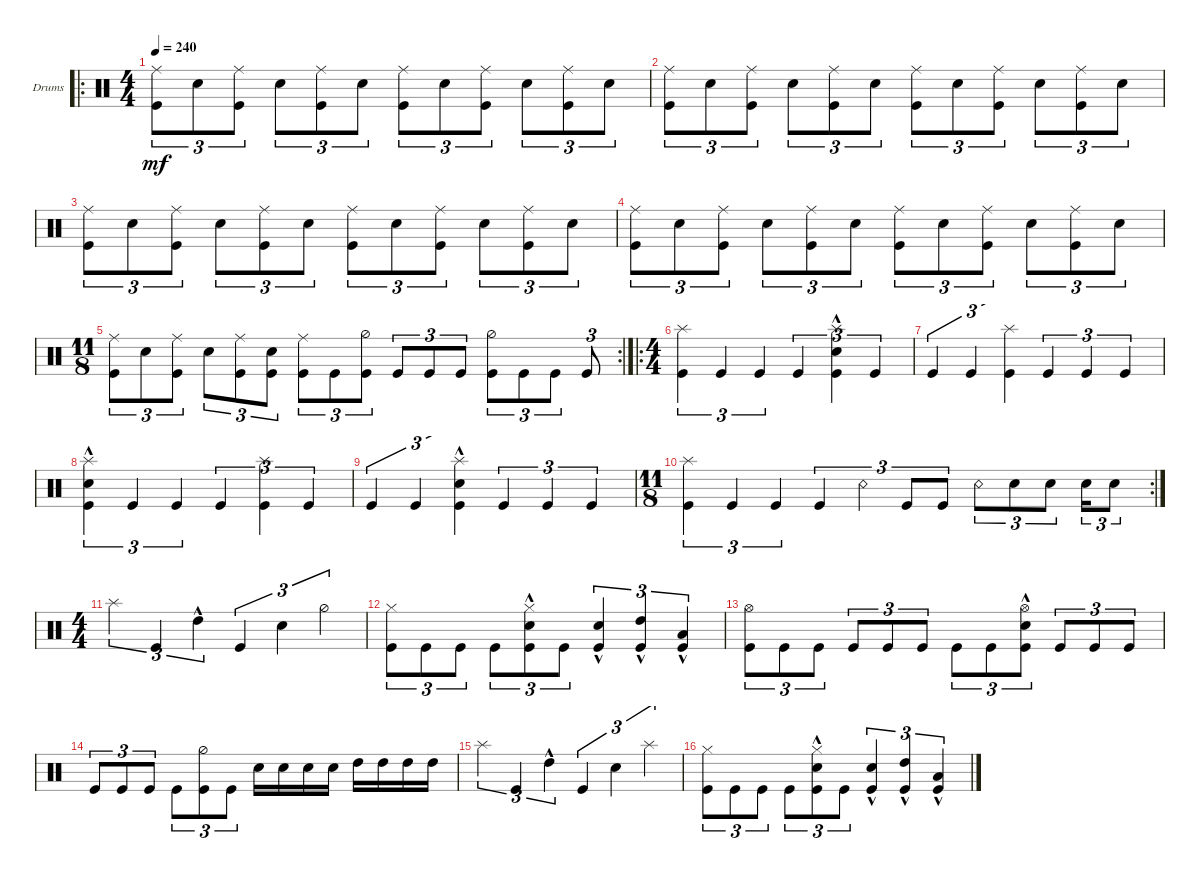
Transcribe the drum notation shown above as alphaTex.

\defaultSystemsLayout 4
\bracketExtendMode groupsimilarinstruments
\firstSystemTrackNameOrientation horizontal
\otherSystemsTrackNameOrientation horizontal
\track ("Drumkit" "Drums") {instrument percussion}
\staff {score}
\articulation defaults
\ro
\ts (4 4)
\tempo 240
\clef neutral
\ks c
("Kick (hit)" "Ride (middle)").8{tu (3 2) dy mf} "Snare (hit) 2".8{tu (3 2)} ("Kick (hit)" "Ride (middle)").8{tu (3 2)} "Snare (hit) 2".8{tu (3 2)} ("Kick (hit)" "Ride (middle)").8{tu (3 2)} "Snare (hit) 2".8{tu (3 2)} ("Kick (hit)" "Ride (middle)").8{tu (3 2)} "Snare (hit) 2".8{tu (3 2)} ("Kick (hit)" "Ride (middle)").8{tu (3 2)} "Snare (hit) 2".8{tu (3 2)} ("Kick (hit)" "Ride (middle)").8{tu (3 2)} "Snare (hit) 2".8{tu (3 2)} |
("Kick (hit)" "Ride (middle)").8{tu (3 2)} "Snare (hit) 2".8{tu (3 2)} ("Kick (hit)" "Ride (middle)").8{tu (3 2)} "Snare (hit) 2".8{tu (3 2)} ("Kick (hit)" "Ride (middle)").8{tu (3 2)} "Snare (hit) 2".8{tu (3 2)} ("Kick (hit)" "Ride (middle)").8{tu (3 2)} "Snare (hit) 2".8{tu (3 2)} ("Kick (hit)" "Ride (middle)").8{tu (3 2)} "Snare (hit) 2".8{tu (3 2)} ("Kick (hit)" "Ride (middle)").8{tu (3 2)} "Snare (hit) 2".8{tu (3 2)} |
("Kick (hit)" "Ride (middle)").8{tu (3 2)} "Snare (hit) 2".8{tu (3 2)} ("Kick (hit)" "Ride (middle)").8{tu (3 2)} "Snare (hit) 2".8{tu (3 2)} ("Kick (hit)" "Ride (middle)").8{tu (3 2)} "Snare (hit) 2".8{tu (3 2)} ("Kick (hit)" "Ride (middle)").8{tu (3 2)} "Snare (hit) 2".8{tu (3 2)} ("Kick (hit)" "Ride (middle)").8{tu (3 2)} "Snare (hit) 2".8{tu (3 2)} ("Kick (hit)" "Ride (middle)").8{tu (3 2)} "Snare (hit) 2".8{tu (3 2)} |
("Kick (hit)" "Ride (middle)").8{tu (3 2)} "Snare (hit) 2".8{tu (3 2)} ("Kick (hit)" "Ride (middle)").8{tu (3 2)} "Snare (hit) 2".8{tu (3 2)} ("Kick (hit)" "Ride (middle)").8{tu (3 2)} "Snare (hit) 2".8{tu (3 2)} ("Kick (hit)" "Ride (middle)").8{tu (3 2)} "Snare (hit) 2".8{tu (3 2)} ("Kick (hit)" "Ride (middle)").8{tu (3 2)} "Snare (hit) 2".8{tu (3 2)} ("Kick (hit)" "Ride (middle)").8{tu (3 2)} "Snare (hit) 2".8{tu (3 2)} |
\rc 2
\ts (11 8)
("Kick (hit)" "Ride (middle)").8{tu (3 2)} "Snare (hit) 2".8{tu (3 2)} ("Kick (hit)" "Ride (middle)").8{tu (3 2)} "Snare (hit) 2".8{tu (3 2)} ("Kick (hit)" "Ride (middle)").8{tu (3 2)} ("Snare (hit) 2" "Kick (hit)").8{tu (3 2)} ("Kick (hit)" "Ride (middle)").8{tu (3 2)} "Kick (hit)".8{tu (3 2)} ("Kick (hit)" "Hi-Hat (half)").8{tu (3 2)} "Kick (hit)".8{tu (3 2)} "Kick (hit)".8{tu (3 2)} "Kick (hit)".8{tu (3 2)} ("Kick (hit)" "Hi-Hat (half)").8{tu (3 2)} "Kick (hit)".8{tu (3 2)} "Kick (hit)".8{tu (3 2)} "Kick (hit)".8{tu (3 2)} |
\ro
\ts (4 4)
("Kick (hit)" "Splash (hit)").4{tu (3 2)} "Kick (hit)".4{tu (3 2)} "Kick (hit)".4{tu (3 2)} "Kick (hit)".4{tu (3 2)} ("Kick (hit)" "Splash (hit)" "Snare (hit) 2"{hac}).4{tu (3 2)} "Kick (hit)".4{tu (3 2)} |
"Kick (hit)".4{tu (3 2)} "Kick (hit)".4{tu (3 2)} ("Kick (hit)" "Splash (hit)").4{tu (3 2)} "Kick (hit)".4{tu (3 2)} "Kick (hit)".4{tu (3 2)} "Kick (hit)".4{tu (3 2)} |
("Kick (hit)" "Splash (hit)" "Snare (hit) 2"{hac}).4{tu (3 2)} "Kick (hit)".4{tu (3 2)} "Kick (hit)".4{tu (3 2)} "Kick (hit)".4{tu (3 2)} ("Kick (hit)" "Splash (hit)").4{tu (3 2)} "Kick (hit)".4{tu (3 2)} |
"Kick (hit)".4{tu (3 2)} "Kick (hit)".4{tu (3 2)} ("Kick (hit)" "Splash (hit)" "Snare (hit) 2"{hac}).4{tu (3 2)} "Kick (hit)".4{tu (3 2)} "Kick (hit)".4{tu (3 2)} "Kick (hit)".4{tu (3 2)} |
\rc 2
\ts (11 8)
("Kick (hit)" "Splash (hit)").4{tu (3 2)} "Kick (hit)".4{tu (3 2)} "Kick (hit)".4{tu (3 2)} "Kick (hit)".4{tu (3 2)} "Snare (rim shot)".4{tu (3 2)} "Kick (hit)".8{tu (3 2)} "Kick (hit)".8{tu (3 2)} "Snare (rim shot)".8{tu (3 2)} "Snare (hit) 2".8{tu (3 2)} "Snare (hit) 2".8{tu (3 2)} "Snare (hit) 2".16{tu (3 2)} "Snare (hit) 2".8{tu (3 2)} |
\ts (4 4)
"Splash (hit)".4{tu (3 2)} "Kick (hit)".4{tu (3 2)} "High Tom (hit)"{hac}.4{tu (3 2)} "Kick (hit)".4{tu (3 2)} "Snare (hit) 2".4{tu (3 2)} "Hi-Hat (half)".4{tu (3 2)} |
("Hi-Hat (closed)" "Kick (hit)").8{tu (3 2)} "Kick (hit)".8{tu (3 2)} "Kick (hit)".8{tu (3 2)} "Kick (hit)".8{tu (3 2)} ("Kick (hit)" "Hi-Hat (closed)" "Snare (hit) 2"{hac}).8{tu (3 2)} "Kick (hit)".8{tu (3 2)} ("Snare (hit) 2"{hac} "Kick (hit)").4{tu (3 2)} ("High Tom (hit)"{hac} "Kick (hit)").4{tu (3 2)} ("Low Tom (hit)"{hac} "Kick (hit)").4{tu (3 2)} |
("Kick (hit)" "Hi-Hat (open)").8{tu (3 2)} "Kick (hit)".8{tu (3 2)} "Kick (hit)".8{tu (3 2)} "Kick (hit)".8{tu (3 2)} "Kick (hit)".8{tu (3 2)} "Kick (hit)".8{tu (3 2)} "Kick (hit)".8{tu (3 2)} "Kick (hit)".8{tu (3 2)} ("Kick (hit)" "Hi-Hat (open)" "Snare (hit) 2"{hac}).8{tu (3 2)} "Kick (hit)".8{tu (3 2)} "Kick (hit)".8{tu (3 2)} "Kick (hit)".8{tu (3 2)} |
"Kick (hit)".8{tu (3 2)} "Kick (hit)".8{tu (3 2)} "Kick (hit)".8{tu (3 2)} "Kick (hit)".8{tu (3 2)} ("Kick (hit)" "Hi-Hat (half)").8{tu (3 2)} "Kick (hit)".8{tu (3 2)} "Snare (hit) 2".16 "Snare (hit) 2".16 "Snare (hit) 2".16 "Snare (hit) 2".16 "High Tom (hit)".16 "High Tom (hit)".16 "High Tom (hit)".16 "High Tom (hit)".16 |
"Splash (hit)".4{tu (3 2)} "Kick (hit)".4{tu (3 2)} "High Tom (hit)"{hac}.4{tu (3 2)} "Kick (hit)".4{tu (3 2)} "Snare (hit) 2".4{tu (3 2)} "Splash (hit)".4{tu (3 2)} |
("Hi-Hat (closed)" "Kick (hit)").8{tu (3 2)} "Kick (hit)".8{tu (3 2)} "Kick (hit)".8{tu (3 2)} "Kick (hit)".8{tu (3 2)} ("Kick (hit)" "Hi-Hat (closed)" "Snare (hit) 2"{hac}).8{tu (3 2)} "Kick (hit)".8{tu (3 2)} ("Snare (hit) 2"{hac} "Kick (hit)").4{tu (3 2)} ("High Tom (hit)"{hac} "Kick (hit)").4{tu (3 2)} ("Low Tom (hit)"{hac} "Kick (hit)").4{tu (3 2)}
